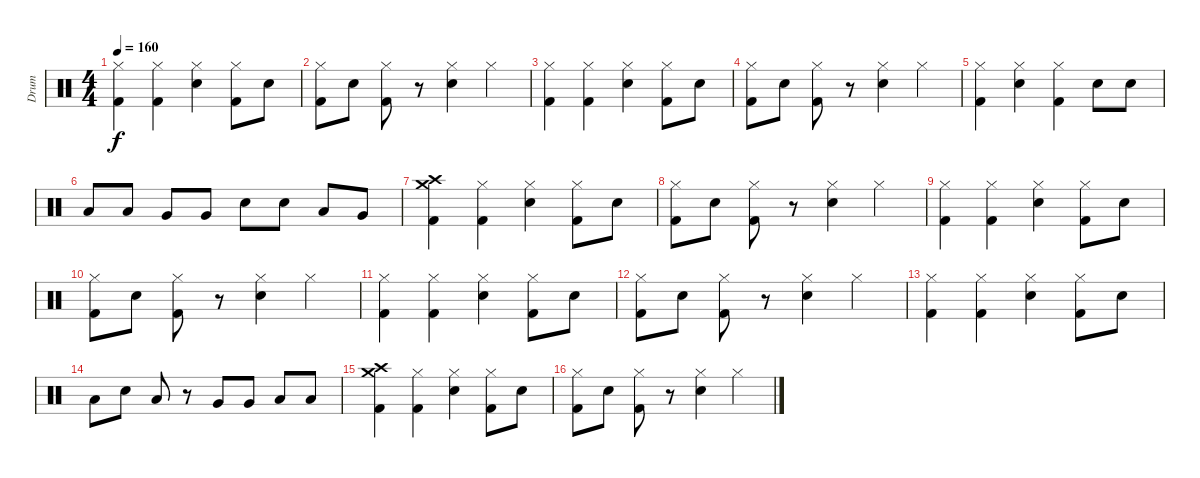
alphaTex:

\track ("Drum" "Drum") {instrument percussion}
\staff {score}
\articulation defaults
\ts (4 4)
\tempo 160
\clef neutral
\ks c
("Hi-Hat (closed)" "Kick (hit) 2").4{dy f} ("Hi-Hat (closed)" "Kick (hit) 2").4 ("Hi-Hat (closed)" "Electric Snare (hit)").4 ("Hi-Hat (closed)" "Kick (hit) 2").8 "Electric Snare (hit)".8 |
("Hi-Hat (closed)" "Kick (hit) 2").8 "Electric Snare (hit)".8 ("Hi-Hat (closed)" "Kick (hit) 2").8 r.8 ("Hi-Hat (closed)" "Electric Snare (hit)").4 "Hi-Hat (closed)".4 |
("Hi-Hat (closed)" "Kick (hit) 2").4 ("Hi-Hat (closed)" "Kick (hit) 2").4 ("Hi-Hat (closed)" "Electric Snare (hit)").4 ("Hi-Hat (closed)" "Kick (hit) 2").8 "Electric Snare (hit)".8 |
("Hi-Hat (closed)" "Kick (hit) 2").8 "Electric Snare (hit)".8 ("Hi-Hat (closed)" "Kick (hit) 2").8 r.8 ("Hi-Hat (closed)" "Electric Snare (hit)").4 "Hi-Hat (closed)".4 |
("Hi-Hat (closed)" "Kick (hit) 2").4 ("Hi-Hat (closed)" "Electric Snare (hit)").4 ("Hi-Hat (closed)" "Kick (hit) 2").4 "Electric Snare (hit)".8 "Electric Snare (hit)".8 |
"Low Floor Tom (hit)".8 "Low Floor Tom (hit)".8 "Very Low Tom (hit)".8 "Very Low Tom (hit)".8 "Electric Snare (hit)".8 "Electric Snare (hit)".8 "Low Floor Tom (hit)".8 "Very Low Tom (hit)".8 |
("Crash high (hit)" "Crash medium (hit)" "Kick (hit) 2").4 ("Hi-Hat (closed)" "Kick (hit) 2").4 ("Hi-Hat (closed)" "Electric Snare (hit)").4 ("Hi-Hat (closed)" "Kick (hit) 2").8 "Electric Snare (hit)".8 |
("Hi-Hat (closed)" "Kick (hit) 2").8 "Electric Snare (hit)".8 ("Hi-Hat (closed)" "Kick (hit) 2").8 r.8 ("Hi-Hat (closed)" "Electric Snare (hit)").4 "Hi-Hat (closed)".4 |
("Hi-Hat (closed)" "Kick (hit) 2").4 ("Hi-Hat (closed)" "Kick (hit) 2").4 ("Hi-Hat (closed)" "Electric Snare (hit)").4 ("Hi-Hat (closed)" "Kick (hit) 2").8 "Electric Snare (hit)".8 |
("Hi-Hat (closed)" "Kick (hit) 2").8 "Electric Snare (hit)".8 ("Hi-Hat (closed)" "Kick (hit) 2").8 r.8 ("Hi-Hat (closed)" "Electric Snare (hit)").4 "Hi-Hat (closed)".4 |
("Hi-Hat (closed)" "Kick (hit) 2").4 ("Hi-Hat (closed)" "Kick (hit) 2").4 ("Hi-Hat (closed)" "Electric Snare (hit)").4 ("Hi-Hat (closed)" "Kick (hit) 2").8 "Electric Snare (hit)".8 |
("Hi-Hat (closed)" "Kick (hit) 2").8 "Electric Snare (hit)".8 ("Hi-Hat (closed)" "Kick (hit) 2").8 r.8 ("Hi-Hat (closed)" "Electric Snare (hit)").4 "Hi-Hat (closed)".4 |
("Hi-Hat (closed)" "Kick (hit) 2").4 ("Hi-Hat (closed)" "Kick (hit) 2").4 ("Hi-Hat (closed)" "Electric Snare (hit)").4 ("Hi-Hat (closed)" "Kick (hit) 2").8 "Electric Snare (hit)".8 |
"Low Floor Tom (hit)".8 "Electric Snare (hit)".8 "Low Floor Tom (hit)".8 r.8 "Very Low Tom (hit)".8 "Very Low Tom (hit)".8 "Low Tom (hit)".8 "Low Tom (hit)".8 |
("Crash high (hit)" "Crash medium (hit)" "Kick (hit) 2").4 ("Hi-Hat (closed)" "Kick (hit) 2").4 ("Hi-Hat (closed)" "Electric Snare (hit)").4 ("Hi-Hat (closed)" "Kick (hit) 2").8 "Electric Snare (hit)".8 |
("Hi-Hat (closed)" "Kick (hit) 2").8 "Electric Snare (hit)".8 ("Hi-Hat (closed)" "Kick (hit) 2").8 r.8 ("Hi-Hat (closed)" "Electric Snare (hit)").4 "Hi-Hat (closed)".4
